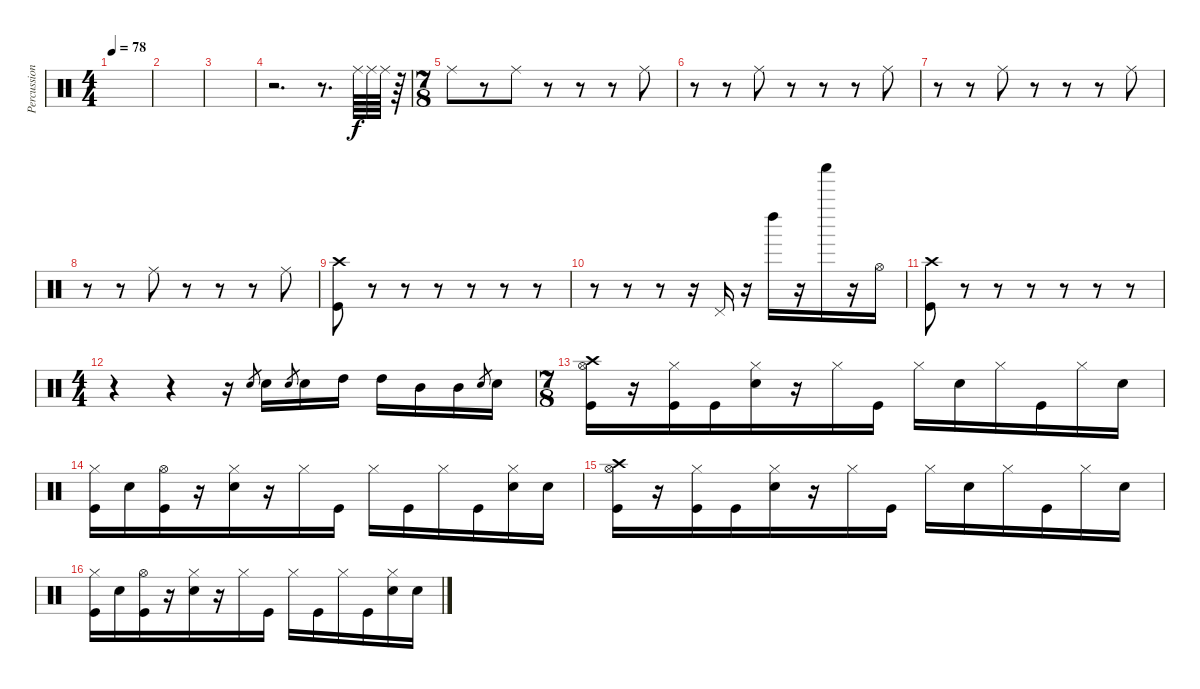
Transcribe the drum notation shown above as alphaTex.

\track ("Percussions" "Percussion") {instrument percussion}
\staff {score}
\articulation defaults
\ts (4 4)
\tempo 78
\clef neutral
\ks c
|
|
|
r.2{d} r.8{d} "Ride (middle)".64 "Ride (middle)".64 "Ride (middle)".64 r.64 |
\ts (7 8)
"Ride (middle)".8 r.8 "Ride (middle)".8 r.8 r.8 r.8 "Ride (middle)".8 |
r.8 r.8 "Ride (middle)".8 r.8 r.8 r.8 "Ride (middle)".8 |
r.8 r.8 "Ride (middle)".8 r.8 r.8 r.8 "Ride (middle)".8 |
r.8 r.8 "Ride (middle)".8 r.8 r.8 r.8 "Ride (middle)".8 |
("Crash high (hit)" "Kick (hit)").8 r.8 r.8 r.8 r.8 r.8 r.8 |
r.8 r.8 r.8 r.16 "Pedal Hi-Hat (hit)".16 r.16 "Left Maraca (hit)".16 r.16 "Shaker (hit)".16 r.16 "Hi-Hat (open)".16 |
("Crash high (hit)" "Kick (hit)").8 r.8 r.8 r.8 r.8 r.8 r.8 |
\ts (4 4)
r.4 r.4 r.16 "Snare (hit) 2".8{gr} "Snare (hit) 2".16 "Snare (hit) 2".8{gr} "Snare (hit) 2".16 "High Tom (hit)".16 "High Tom (hit)".16 "Mid Tom (hit)".16 "Mid Tom (hit)".16 "Snare (hit) 2".8{gr} "Snare (hit) 2".16 |
\ts (7 8)
("Crash high (hit)" "Hi-Hat (open)" "Kick (hit)").16 r.16 ("Hi-Hat (closed)" "Kick (hit)").16 "Kick (hit)".16 ("Hi-Hat (closed)" "Snare (hit) 2").16 r.16 "Hi-Hat (closed)".16 "Kick (hit)".16 "Hi-Hat (closed)".16 "Snare (hit) 2".16 "Hi-Hat (closed)".16 "Kick (hit)".16 "Hi-Hat (closed)".16 "Snare (hit) 2".16 |
("Hi-Hat (closed)" "Kick (hit)").16 "Snare (hit) 2".16 ("Hi-Hat (open)" "Kick (hit)").16 r.16 ("Hi-Hat (closed)" "Snare (hit) 2").16 r.16 "Hi-Hat (closed)".16 "Kick (hit)".16 "Hi-Hat (closed)".16 "Kick (hit)".16 "Hi-Hat (closed)".16 "Kick (hit)".16 ("Hi-Hat (closed)" "Snare (hit) 2").16 "Snare (hit) 2".16 |
("Crash high (hit)" "Hi-Hat (open)" "Kick (hit)").16 r.16 ("Hi-Hat (closed)" "Kick (hit)").16 "Kick (hit)".16 ("Hi-Hat (closed)" "Snare (hit) 2").16 r.16 "Hi-Hat (closed)".16 "Kick (hit)".16 "Hi-Hat (closed)".16 "Snare (hit) 2".16 "Hi-Hat (closed)".16 "Kick (hit)".16 "Hi-Hat (closed)".16 "Snare (hit) 2".16 |
("Hi-Hat (closed)" "Kick (hit)").16 "Snare (hit) 2".16 ("Hi-Hat (open)" "Kick (hit)").16 r.16 ("Hi-Hat (closed)" "Snare (hit) 2").16 r.16 "Hi-Hat (closed)".16 "Kick (hit)".16 "Hi-Hat (closed)".16 "Kick (hit)".16 "Hi-Hat (closed)".16 "Kick (hit)".16 ("Hi-Hat (closed)" "Snare (hit) 2").16 "Snare (hit) 2".16
